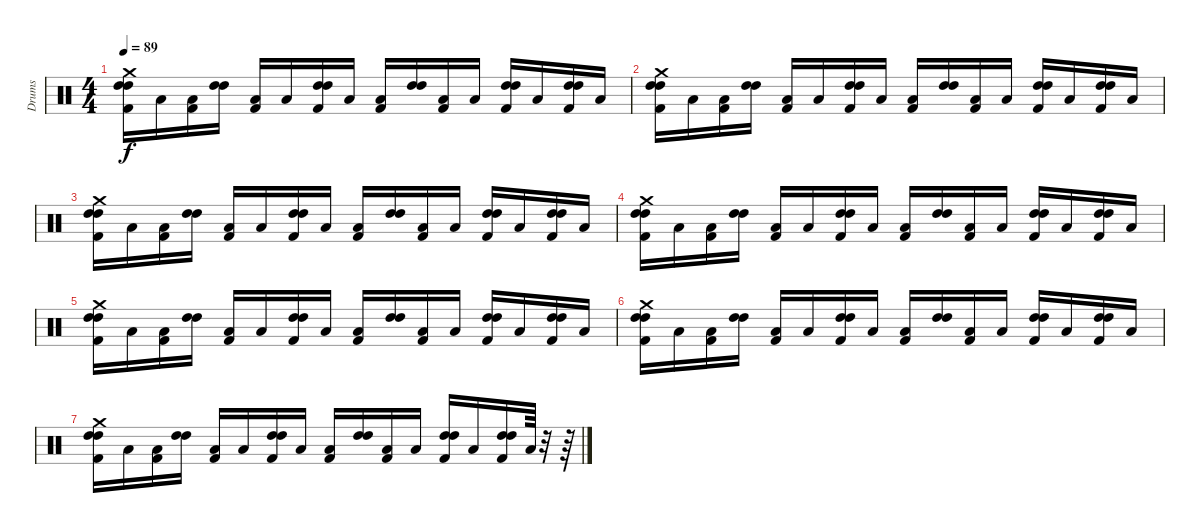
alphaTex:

\track ("Drums" "Drums") {instrument percussion}
\staff {score}
\articulation defaults
\ts (4 4)
\tempo 89
\clef neutral
\ks c
("High Tom (hit)" "Kick (hit) 2" "Crash medium (hit)" "High Tom (hit)").16{dy f} "Low Tom (hit)".16 ("Low Tom (hit)" "Kick (hit) 2").16 ("High Tom (hit)" "High Tom (hit)").16 ("Low Tom (hit)" "Kick (hit) 2").16 "Low Tom (hit)".16 ("High Tom (hit)" "Kick (hit) 2" "High Tom (hit)").16 "Low Tom (hit)".16 ("Low Tom (hit)" "Kick (hit) 2").16 ("High Tom (hit)" "High Tom (hit)").16 ("Low Tom (hit)" "Kick (hit) 2").16 "Low Tom (hit)".16 ("High Tom (hit)" "Kick (hit) 2" "High Tom (hit)").16 "Low Tom (hit)".16 ("High Tom (hit)" "Kick (hit) 2" "High Tom (hit)").16 "Low Tom (hit)".16 |
("High Tom (hit)" "Kick (hit) 2" "Crash medium (hit)" "High Tom (hit)").16 "Low Tom (hit)".16 ("Low Tom (hit)" "Kick (hit) 2").16 ("High Tom (hit)" "High Tom (hit)").16 ("Low Tom (hit)" "Kick (hit) 2").16 "Low Tom (hit)".16 ("High Tom (hit)" "Kick (hit) 2" "High Tom (hit)").16 "Low Tom (hit)".16 ("Low Tom (hit)" "Kick (hit) 2").16 ("High Tom (hit)" "High Tom (hit)").16 ("Low Tom (hit)" "Kick (hit) 2").16 "Low Tom (hit)".16 ("High Tom (hit)" "Kick (hit) 2" "High Tom (hit)").16 "Low Tom (hit)".16 ("High Tom (hit)" "Kick (hit) 2" "High Tom (hit)").16 "Low Tom (hit)".16 |
("High Tom (hit)" "Kick (hit) 2" "Crash medium (hit)" "High Tom (hit)").16 "Low Tom (hit)".16 ("Low Tom (hit)" "Kick (hit) 2").16 ("High Tom (hit)" "High Tom (hit)").16 ("Low Tom (hit)" "Kick (hit) 2").16 "Low Tom (hit)".16 ("High Tom (hit)" "Kick (hit) 2" "High Tom (hit)").16 "Low Tom (hit)".16 ("Low Tom (hit)" "Kick (hit) 2").16 ("High Tom (hit)" "High Tom (hit)").16 ("Low Tom (hit)" "Kick (hit) 2").16 "Low Tom (hit)".16 ("High Tom (hit)" "Kick (hit) 2" "High Tom (hit)").16 "Low Tom (hit)".16 ("High Tom (hit)" "Kick (hit) 2" "High Tom (hit)").16 "Low Tom (hit)".16 |
("High Tom (hit)" "Kick (hit) 2" "Crash medium (hit)" "High Tom (hit)").16 "Low Tom (hit)".16 ("Low Tom (hit)" "Kick (hit) 2").16 ("High Tom (hit)" "High Tom (hit)").16 ("Low Tom (hit)" "Kick (hit) 2").16 "Low Tom (hit)".16 ("High Tom (hit)" "Kick (hit) 2" "High Tom (hit)").16 "Low Tom (hit)".16 ("Low Tom (hit)" "Kick (hit) 2").16 ("High Tom (hit)" "High Tom (hit)").16 ("Low Tom (hit)" "Kick (hit) 2").16 "Low Tom (hit)".16 ("High Tom (hit)" "Kick (hit) 2" "High Tom (hit)").16 "Low Tom (hit)".16 ("High Tom (hit)" "Kick (hit) 2" "High Tom (hit)").16 "Low Tom (hit)".16 |
("High Tom (hit)" "Kick (hit) 2" "Crash medium (hit)" "High Tom (hit)").16 "Low Tom (hit)".16 ("Low Tom (hit)" "Kick (hit) 2").16 ("High Tom (hit)" "High Tom (hit)").16 ("Low Tom (hit)" "Kick (hit) 2").16 "Low Tom (hit)".16 ("High Tom (hit)" "Kick (hit) 2" "High Tom (hit)").16 "Low Tom (hit)".16 ("Low Tom (hit)" "Kick (hit) 2").16 ("High Tom (hit)" "High Tom (hit)").16 ("Low Tom (hit)" "Kick (hit) 2").16 "Low Tom (hit)".16 ("High Tom (hit)" "Kick (hit) 2" "High Tom (hit)").16 "Low Tom (hit)".16 ("High Tom (hit)" "Kick (hit) 2" "High Tom (hit)").16 "Low Tom (hit)".16 |
("High Tom (hit)" "Kick (hit) 2" "Crash medium (hit)" "High Tom (hit)").16 "Low Tom (hit)".16 ("Low Tom (hit)" "Kick (hit) 2").16 ("High Tom (hit)" "High Tom (hit)").16 ("Low Tom (hit)" "Kick (hit) 2").16 "Low Tom (hit)".16 ("High Tom (hit)" "Kick (hit) 2" "High Tom (hit)").16 "Low Tom (hit)".16 ("Low Tom (hit)" "Kick (hit) 2").16 ("High Tom (hit)" "High Tom (hit)").16 ("Low Tom (hit)" "Kick (hit) 2").16 "Low Tom (hit)".16 ("High Tom (hit)" "Kick (hit) 2" "High Tom (hit)").16 "Low Tom (hit)".16 ("High Tom (hit)" "Kick (hit) 2" "High Tom (hit)").16 "Low Tom (hit)".16 |
("High Tom (hit)" "Kick (hit) 2" "Crash medium (hit)" "High Tom (hit)").16 "Low Tom (hit)".16 ("Low Tom (hit)" "Kick (hit) 2").16 ("High Tom (hit)" "High Tom (hit)").16 ("Low Tom (hit)" "Kick (hit) 2").16 "Low Tom (hit)".16 ("High Tom (hit)" "Kick (hit) 2" "High Tom (hit)").16 "Low Tom (hit)".16 ("Low Tom (hit)" "Kick (hit) 2").16 ("High Tom (hit)" "High Tom (hit)").16 ("Low Tom (hit)" "Kick (hit) 2").16 "Low Tom (hit)".16 ("High Tom (hit)" "Kick (hit) 2" "High Tom (hit)").16 "Low Tom (hit)".16 ("High Tom (hit)" "Kick (hit) 2" "High Tom (hit)").16 "Low Tom (hit)".64 r.32 r.64
